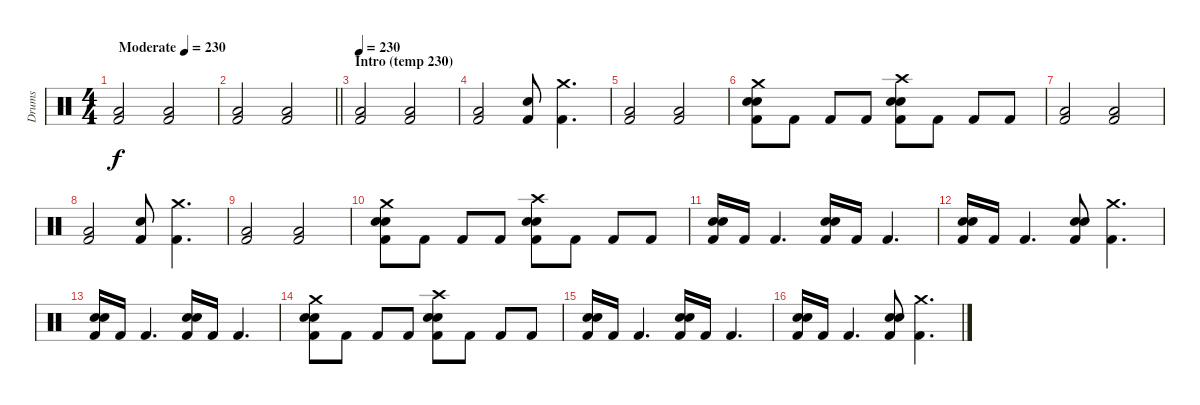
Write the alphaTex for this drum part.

\track ("Drums" "Drums") {instrument percussion}
\staff {score}
\articulation defaults
\ts (4 4)
\tempo (230 "Moderate")
\clef neutral
\ks c
("Low Floor Tom (hit)" "Kick (hit) 2").2{dy f} ("Low Floor Tom (hit)" "Kick (hit) 2").2 |
\barLineRight lightlight
("Low Floor Tom (hit)" "Kick (hit) 2").2 ("Low Floor Tom (hit)" "Kick (hit) 2").2 |
\section ("" "Intro (temp 230)")
\tempo 230
("Low Floor Tom (hit)" "Kick (hit) 2").2 ("Low Floor Tom (hit)" "Kick (hit) 2").2 |
("Low Floor Tom (hit)" "Kick (hit) 2").2 ("Electric Snare (hit)" "Kick (hit) 2").8 ("Crash medium (hit)" "Kick (hit) 2").4{d} |
("Low Floor Tom (hit)" "Kick (hit) 2").2 ("Low Floor Tom (hit)" "Kick (hit) 2").2 |
("Crash medium (hit)" "Electric Snare (hit)" "Electric Snare (hit)" "Kick (hit) 2").8 "Kick (hit) 2".8 "Kick (hit) 2".8 "Kick (hit) 2".8 ("Crash high (hit)" "Electric Snare (hit)" "Electric Snare (hit)" "Kick (hit) 2").8 "Kick (hit) 2".8 "Kick (hit) 2".8 "Kick (hit) 2".8 |
("Low Floor Tom (hit)" "Kick (hit) 2").2 ("Low Floor Tom (hit)" "Kick (hit) 2").2 |
("Low Floor Tom (hit)" "Kick (hit) 2").2 ("Electric Snare (hit)" "Kick (hit) 2").8 ("Crash medium (hit)" "Kick (hit) 2").4{d} |
("Low Floor Tom (hit)" "Kick (hit) 2").2 ("Low Floor Tom (hit)" "Kick (hit) 2").2 |
("Crash medium (hit)" "Electric Snare (hit)" "Electric Snare (hit)" "Kick (hit) 2").8 "Kick (hit) 2".8 "Kick (hit) 2".8 "Kick (hit) 2".8 ("Crash high (hit)" "Electric Snare (hit)" "Electric Snare (hit)" "Kick (hit) 2").8 "Kick (hit) 2".8 "Kick (hit) 2".8 "Kick (hit) 2".8 |
("Electric Snare (hit)" "Electric Snare (hit)" "Kick (hit) 2").16 "Kick (hit) 2".16 "Kick (hit) 2".4{d} ("Electric Snare (hit)" "Electric Snare (hit)" "Kick (hit) 2").16 "Kick (hit) 2".16 "Kick (hit) 2".4{d} |
("Electric Snare (hit)" "Electric Snare (hit)" "Kick (hit) 2").16 "Kick (hit) 2".16 "Kick (hit) 2".4{d} ("Electric Snare (hit)" "Electric Snare (hit)" "Kick (hit) 2").8 ("Crash medium (hit)" "Kick (hit) 2").4{d} |
("Electric Snare (hit)" "Electric Snare (hit)" "Kick (hit) 2").16 "Kick (hit) 2".16 "Kick (hit) 2".4{d} ("Electric Snare (hit)" "Electric Snare (hit)" "Kick (hit) 2").16 "Kick (hit) 2".16 "Kick (hit) 2".4{d} |
("Crash medium (hit)" "Electric Snare (hit)" "Electric Snare (hit)" "Kick (hit) 2").8 "Kick (hit) 2".8 "Kick (hit) 2".8 "Kick (hit) 2".8 ("Crash high (hit)" "Electric Snare (hit)" "Electric Snare (hit)" "Kick (hit) 2").8 "Kick (hit) 2".8 "Kick (hit) 2".8 "Kick (hit) 2".8 |
("Electric Snare (hit)" "Electric Snare (hit)" "Kick (hit) 2").16 "Kick (hit) 2".16 "Kick (hit) 2".4{d} ("Electric Snare (hit)" "Electric Snare (hit)" "Kick (hit) 2").16 "Kick (hit) 2".16 "Kick (hit) 2".4{d} |
("Electric Snare (hit)" "Electric Snare (hit)" "Kick (hit) 2").16 "Kick (hit) 2".16 "Kick (hit) 2".4{d} ("Electric Snare (hit)" "Electric Snare (hit)" "Kick (hit) 2").8 ("Crash medium (hit)" "Kick (hit) 2").4{d}
